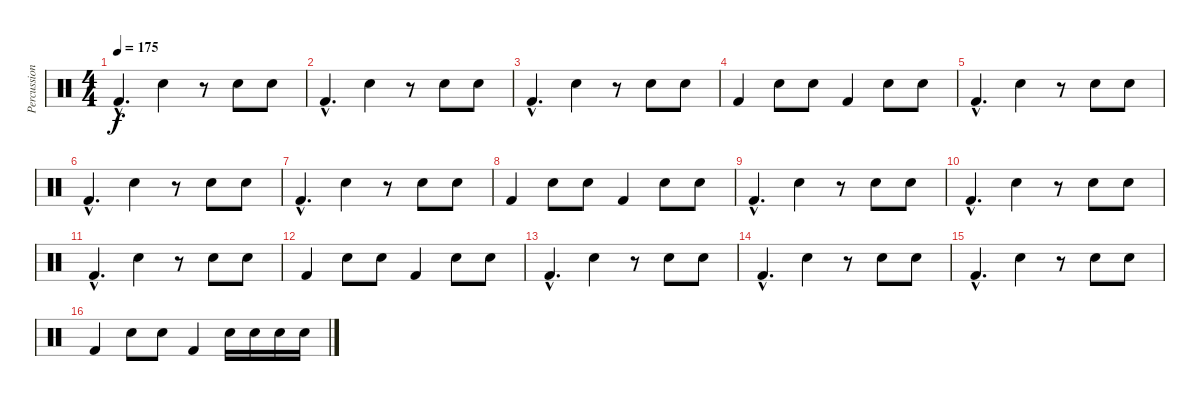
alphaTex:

\track ("Percussions" "Percussion") {instrument percussion}
\staff {score}
\articulation defaults
\ts (4 4)
\tempo 175
\clef neutral
\ks c "Kick (hit) 2"{hac}.4{d dy f} "Snare (hit) 2".4
r.8 "Snare (hit) 2".8 "Snare (hit) 2".8 |
"Kick (hit) 2"{hac}.4{d} "Snare (hit) 2".4 r.8 "Snare (hit) 2".8 "Snare (hit) 2".8 |
"Kick (hit) 2"{hac}.4{d} "Snare (hit) 2".4 r.8 "Snare (hit) 2".8 "Snare (hit) 2".8 |
"Kick (hit) 2".4 "Snare (hit) 2".8 "Snare (hit) 2".8 "Kick (hit) 2".4 "Snare (hit) 2".8 "Snare (hit) 2".8 |
"Kick (hit) 2"{hac}.4{d} "Snare (hit) 2".4 r.8 "Snare (hit) 2".8 "Snare (hit) 2".8 |
"Kick (hit) 2"{hac}.4{d} "Snare (hit) 2".4 r.8 "Snare (hit) 2".8 "Snare (hit) 2".8 |
"Kick (hit) 2"{hac}.4{d} "Snare (hit) 2".4 r.8 "Snare (hit) 2".8 "Snare (hit) 2".8 |
"Kick (hit) 2".4 "Snare (hit) 2".8 "Snare (hit) 2".8 "Kick (hit) 2".4 "Snare (hit) 2".8 "Snare (hit) 2".8 |
"Kick (hit) 2"{hac}.4{d} "Snare (hit) 2".4 r.8 "Snare (hit) 2".8 "Snare (hit) 2".8 |
"Kick (hit) 2"{hac}.4{d} "Snare (hit) 2".4 r.8 "Snare (hit) 2".8 "Snare (hit) 2".8 |
"Kick (hit) 2"{hac}.4{d} "Snare (hit) 2".4 r.8 "Snare (hit) 2".8 "Snare (hit) 2".8 |
"Kick (hit) 2".4 "Snare (hit) 2".8 "Snare (hit) 2".8 "Kick (hit) 2".4 "Snare (hit) 2".8 "Snare (hit) 2".8 |
"Kick (hit) 2"{hac}.4{d} "Snare (hit) 2".4 r.8 "Snare (hit) 2".8 "Snare (hit) 2".8 |
"Kick (hit) 2"{hac}.4{d} "Snare (hit) 2".4 r.8 "Snare (hit) 2".8 "Snare (hit) 2".8 |
"Kick (hit) 2"{hac}.4{d} "Snare (hit) 2".4 r.8 "Snare (hit) 2".8 "Snare (hit) 2".8 |
"Kick (hit) 2".4 "Snare (hit) 2".8 "Snare (hit) 2".8 "Kick (hit) 2".4 "Snare (hit) 2".16 "Snare (hit) 2".16 "Snare (hit) 2".16 "Snare (hit) 2".16
